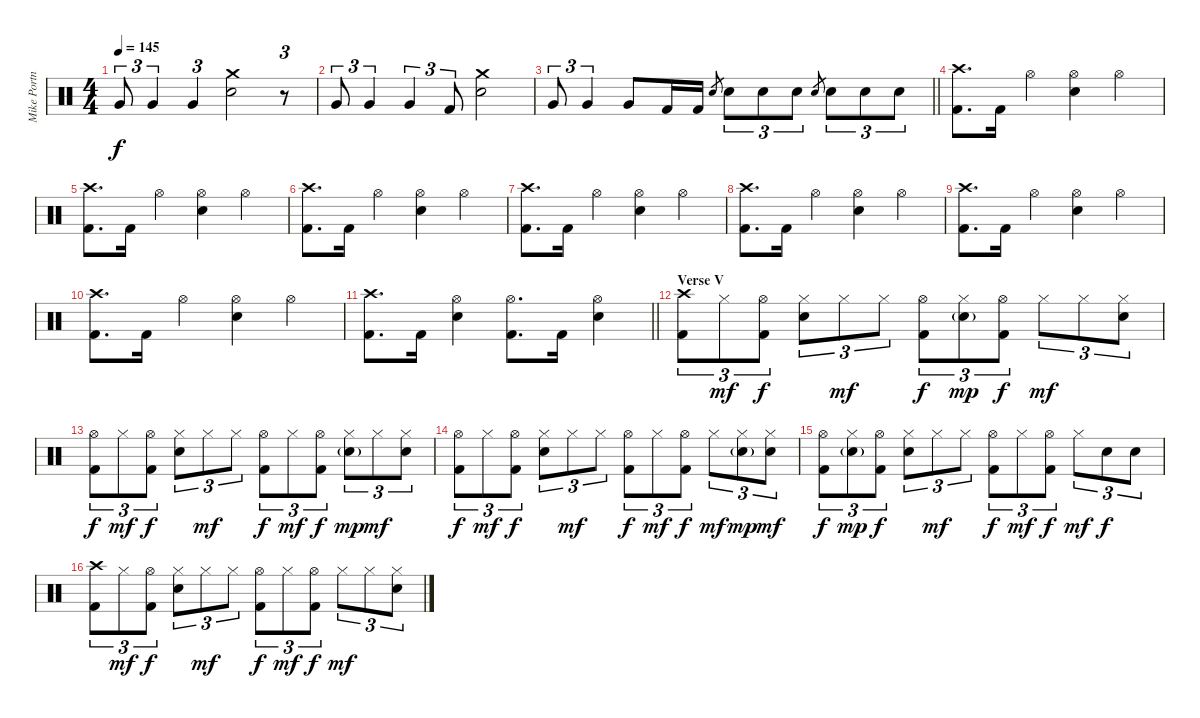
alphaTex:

\track ("Mike Portnoy" "Mike Portn") {instrument percussion}
\staff {score}
\articulation defaults
\ts (4 4)
\tempo 145
\clef neutral
\ks c "Very Low Tom (hit)".8{tu (3 2) dy f} "Very Low Tom (hit)".4{tu (3 2)} "Very Low Tom (hit)".4{tu (3 2)}
("Crash medium (hit)" "Electric Snare (hit)").2 r.8{tu (3 2)} |
"Very Low Tom (hit)".8{tu (3 2)} "Very Low Tom (hit)".4{tu (3 2)} "Very Low Tom (hit)".4{tu (3 2)} "Kick (hit) 2".8{tu (3 2)} ("Crash medium (hit)" "Electric Snare (hit)").2 |
\barLineRight lightlight "Very Low Tom (hit)".8{tu (3 2)} "Very Low Tom (hit)".4{tu (3 2)} "Very Low Tom (hit)".8 "Kick (hit) 2".16 "Kick (hit) 2".16 "Electric Snare (hit)".8{gr} "Electric Snare (hit)".8{tu (3 2)} "Electric Snare (hit)".8{tu (3 2)} "Electric Snare (hit)".8{tu (3 2)} "Electric Snare (hit)".8{gr} "Electric Snare (hit)".8{tu (3 2)} "Electric Snare (hit)".8{tu (3 2)} "Electric Snare (hit)".8{tu (3 2)}
|
("Crash high (hit)" "Kick (hit) 2").8{d} "Kick (hit) 2".16 "Hi-Hat (open)".4 ("Hi-Hat (open)" "Electric Snare (hit)").4 "Hi-Hat (open)".4 |
("Crash high (hit)" "Kick (hit) 2").8{d} "Kick (hit) 2".16 "Hi-Hat (open)".4 ("Hi-Hat (open)" "Electric Snare (hit)").4 "Hi-Hat (open)".4 |
("Crash high (hit)" "Kick (hit) 2").8{d} "Kick (hit) 2".16 "Hi-Hat (open)".4 ("Hi-Hat (open)" "Electric Snare (hit)").4 "Hi-Hat (open)".4 |
("Crash high (hit)" "Kick (hit) 2").8{d} "Kick (hit) 2".16 "Hi-Hat (open)".4 ("Hi-Hat (open)" "Electric Snare (hit)").4 "Hi-Hat (open)".4 |
("Crash high (hit)" "Kick (hit) 2").8{d} "Kick (hit) 2".16 "Hi-Hat (open)".4 ("Hi-Hat (open)" "Electric Snare (hit)").4 "Hi-Hat (open)".4 |
("Crash high (hit)" "Kick (hit) 2").8{d} "Kick (hit) 2".16 "Hi-Hat (open)".4 ("Hi-Hat (open)" "Electric Snare (hit)").4 "Hi-Hat (open)".4 |
("Crash high (hit)" "Kick (hit) 2").8{d} "Kick (hit) 2".16 "Hi-Hat (open)".4 ("Hi-Hat (open)" "Electric Snare (hit)").4 "Hi-Hat (open)".4 |
\barLineRight lightlight
("Crash high (hit)" "Kick (hit) 2").8{d} "Kick (hit) 2".16 ("Hi-Hat (open)" "Electric Snare (hit)").4 ("Hi-Hat (open)" "Kick (hit) 2").8{d} "Kick (hit) 2".16 ("Hi-Hat (open)" "Electric Snare (hit)").4 |
\section ("" "Verse V")
("Crash high (hit)" "Kick (hit) 2").8{tu (3 2)} "Hi-Hat (closed)".8{tu (3 2) dy mf} ("Hi-Hat (open)" "Kick (hit) 2").8{tu (3 2) dy f} ("Hi-Hat (closed)" "Electric Snare (hit)").8{tu (3 2)} "Hi-Hat (closed)".8{tu (3 2) dy mf} "Hi-Hat (closed)".8{tu (3 2)} ("Hi-Hat (open)" "Kick (hit) 2").8{tu (3 2) dy f} ("Hi-Hat (closed)" "Electric Snare (hit)"{g}).8{tu (3 2) dy mp} ("Hi-Hat (open)" "Kick (hit) 2").8{tu (3 2) dy f} "Hi-Hat (closed)".8{tu (3 2) dy mf} "Hi-Hat (closed)".8{tu (3 2)} ("Hi-Hat (closed)" "Electric Snare (hit)").8{tu (3 2)} |
("Hi-Hat (open)" "Kick (hit) 2").8{tu (3 2) dy f} "Hi-Hat (closed)".8{tu (3 2) dy mf} ("Hi-Hat (open)" "Kick (hit) 2").8{tu (3 2) dy f} ("Hi-Hat (closed)" "Electric Snare (hit)").8{tu (3 2)} "Hi-Hat (closed)".8{tu (3 2) dy mf} "Hi-Hat (closed)".8{tu (3 2)} ("Hi-Hat (open)" "Kick (hit) 2").8{tu (3 2) dy f} "Hi-Hat (closed)".8{tu (3 2) dy mf} ("Hi-Hat (open)" "Kick (hit) 2").8{tu (3 2) dy f} ("Hi-Hat (closed)" "Electric Snare (hit)"{g}).8{tu (3 2) dy mp} "Hi-Hat (closed)".8{tu (3 2) dy mf} ("Hi-Hat (closed)" "Electric Snare (hit)").8{tu (3 2)} |
("Hi-Hat (open)" "Kick (hit) 2").8{tu (3 2) dy f} "Hi-Hat (closed)".8{tu (3 2) dy mf} ("Hi-Hat (open)" "Kick (hit) 2").8{tu (3 2) dy f} ("Hi-Hat (closed)" "Electric Snare (hit)").8{tu (3 2)} "Hi-Hat (closed)".8{tu (3 2) dy mf} "Hi-Hat (closed)".8{tu (3 2)} ("Hi-Hat (open)" "Kick (hit) 2").8{tu (3 2) dy f} "Hi-Hat (closed)".8{tu (3 2) dy mf} ("Hi-Hat (open)" "Kick (hit) 2").8{tu (3 2) dy f} "Hi-Hat (closed)".8{tu (3 2) dy mf} ("Hi-Hat (closed)" "Electric Snare (hit)"{g}).8{tu (3 2) dy mp} ("Hi-Hat (closed)" "Electric Snare (hit)").8{tu (3 2) dy mf} |
("Hi-Hat (open)" "Kick (hit) 2").8{tu (3 2) dy f} ("Hi-Hat (closed)" "Electric Snare (hit)"{g}).8{tu (3 2) dy mp} ("Hi-Hat (open)" "Kick (hit) 2").8{tu (3 2) dy f} ("Hi-Hat (closed)" "Electric Snare (hit)").8{tu (3 2)} "Hi-Hat (closed)".8{tu (3 2) dy mf} "Hi-Hat (closed)".8{tu (3 2)} ("Hi-Hat (open)" "Kick (hit) 2").8{tu (3 2) dy f} "Hi-Hat (closed)".8{tu (3 2) dy mf} ("Hi-Hat (open)" "Kick (hit) 2").8{tu (3 2) dy f} "Hi-Hat (closed)".8{tu (3 2) dy mf} "Electric Snare (hit)".8{tu (3 2) dy f} "Electric Snare (hit)".8{tu (3 2)} |
("Crash high (hit)" "Kick (hit) 2").8{tu (3 2)} "Hi-Hat (closed)".8{tu (3 2) dy mf} ("Hi-Hat (open)" "Kick (hit) 2").8{tu (3 2) dy f} ("Hi-Hat (closed)" "Electric Snare (hit)").8{tu (3 2)} "Hi-Hat (closed)".8{tu (3 2) dy mf} "Hi-Hat (closed)".8{tu (3 2)} ("Hi-Hat (open)" "Kick (hit) 2").8{tu (3 2) dy f} "Hi-Hat (closed)".8{tu (3 2) dy mf} ("Hi-Hat (open)" "Kick (hit) 2").8{tu (3 2) dy f} "Hi-Hat (closed)".8{tu (3 2) dy mf} "Hi-Hat (closed)".8{tu (3 2)} ("Hi-Hat (closed)" "Electric Snare (hit)").8{tu (3 2)}
